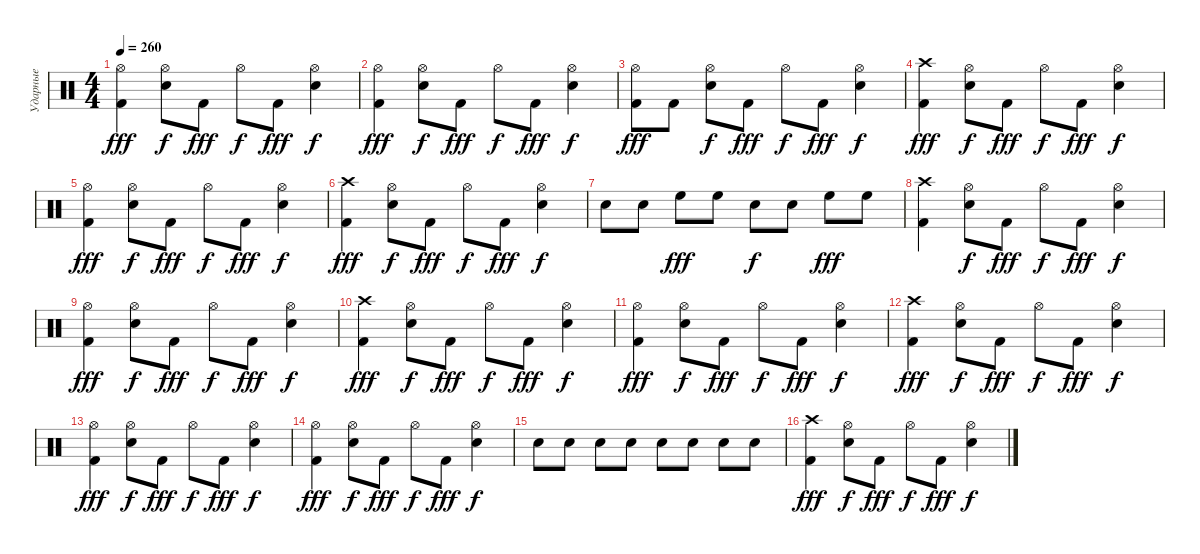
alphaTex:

\track ("Ударные" "Ударные") {instrument percussion}
\staff {score}
\articulation defaults
\ts (4 4)
\tempo 260
\clef neutral
\ks c
("Kick (hit) 2" "Hi-Hat (open)").4{dy fff} ("Snare (hit) 2" "Hi-Hat (open)").8{dy f} "Kick (hit) 2".8{dy fff} "Hi-Hat (open)".8{dy f} "Kick (hit) 2".8{dy fff} ("Snare (hit) 2" "Hi-Hat (open)").4{dy f} |
("Kick (hit) 2" "Hi-Hat (open)").4{dy fff} ("Snare (hit) 2" "Hi-Hat (open)").8{dy f} "Kick (hit) 2".8{dy fff} "Hi-Hat (open)".8{dy f} "Kick (hit) 2".8{dy fff} ("Snare (hit) 2" "Hi-Hat (open)").4{dy f} |
("Kick (hit) 2" "Hi-Hat (open)").8{dy fff} "Kick (hit) 2".8 ("Snare (hit) 2" "Hi-Hat (open)").8{dy f} "Kick (hit) 2".8{dy fff} "Hi-Hat (open)".8{dy f} "Kick (hit) 2".8{dy fff} ("Snare (hit) 2" "Hi-Hat (open)").4{dy f} |
("Kick (hit) 2" "Crash high (hit)").4{dy fff} ("Snare (hit) 2" "Hi-Hat (open)").8{dy f} "Kick (hit) 2".8{dy fff} "Hi-Hat (open)".8{dy f} "Kick (hit) 2".8{dy fff} ("Snare (hit) 2" "Hi-Hat (open)").4{dy f} |
("Kick (hit) 2" "Hi-Hat (open)").4{dy fff} ("Snare (hit) 2" "Hi-Hat (open)").8{dy f} "Kick (hit) 2".8{dy fff} "Hi-Hat (open)".8{dy f} "Kick (hit) 2".8{dy fff} ("Snare (hit) 2" "Hi-Hat (open)").4{dy f} |
("Kick (hit) 2" "Crash high (hit)").4{dy fff} ("Snare (hit) 2" "Hi-Hat (open)").8{dy f} "Kick (hit) 2".8{dy fff} "Hi-Hat (open)".8{dy f} "Kick (hit) 2".8{dy fff} ("Snare (hit) 2" "Hi-Hat (open)").4{dy f} |
"Snare (hit) 2".8 "Snare (hit) 2".8 "High Floor Tom (hit)".8{dy fff} "High Floor Tom (hit)".8 "Snare (hit) 2".8{dy f} "Snare (hit) 2".8 "High Floor Tom (hit)".8{dy fff} "High Floor Tom (hit)".8 |
("Kick (hit) 2" "Crash high (hit)").4 ("Snare (hit) 2" "Hi-Hat (open)").8{dy f} "Kick (hit) 2".8{dy fff} "Hi-Hat (open)".8{dy f} "Kick (hit) 2".8{dy fff} ("Snare (hit) 2" "Hi-Hat (open)").4{dy f} |
("Kick (hit) 2" "Hi-Hat (open)").4{dy fff} ("Snare (hit) 2" "Hi-Hat (open)").8{dy f} "Kick (hit) 2".8{dy fff} "Hi-Hat (open)".8{dy f} "Kick (hit) 2".8{dy fff} ("Snare (hit) 2" "Hi-Hat (open)").4{dy f} |
("Kick (hit) 2" "Crash high (hit)").4{dy fff} ("Snare (hit) 2" "Hi-Hat (open)").8{dy f} "Kick (hit) 2".8{dy fff} "Hi-Hat (open)".8{dy f} "Kick (hit) 2".8{dy fff} ("Snare (hit) 2" "Hi-Hat (open)").4{dy f} |
("Kick (hit) 2" "Hi-Hat (open)").4{dy fff} ("Snare (hit) 2" "Hi-Hat (open)").8{dy f} "Kick (hit) 2".8{dy fff} "Hi-Hat (open)".8{dy f} "Kick (hit) 2".8{dy fff} ("Snare (hit) 2" "Hi-Hat (open)").4{dy f} |
("Kick (hit) 2" "Crash high (hit)").4{dy fff} ("Snare (hit) 2" "Hi-Hat (open)").8{dy f} "Kick (hit) 2".8{dy fff} "Hi-Hat (open)".8{dy f} "Kick (hit) 2".8{dy fff} ("Snare (hit) 2" "Hi-Hat (open)").4{dy f} |
("Kick (hit) 2" "Hi-Hat (open)").4{dy fff} ("Snare (hit) 2" "Hi-Hat (open)").8{dy f} "Kick (hit) 2".8{dy fff} "Hi-Hat (open)".8{dy f} "Kick (hit) 2".8{dy fff} ("Snare (hit) 2" "Hi-Hat (open)").4{dy f} |
("Kick (hit) 2" "Hi-Hat (open)").4{dy fff} ("Snare (hit) 2" "Hi-Hat (open)").8{dy f} "Kick (hit) 2".8{dy fff} "Hi-Hat (open)".8{dy f} "Kick (hit) 2".8{dy fff} ("Snare (hit) 2" "Hi-Hat (open)").4{dy f} |
"Snare (hit) 2".8 "Snare (hit) 2".8 "Snare (hit) 2".8 "Snare (hit) 2".8 "Snare (hit) 2".8 "Snare (hit) 2".8 "Snare (hit) 2".8 "Snare (hit) 2".8 |
("Kick (hit) 2" "Crash high (hit)").4{dy fff} ("Snare (hit) 2" "Hi-Hat (open)").8{dy f} "Kick (hit) 2".8{dy fff} "Hi-Hat (open)".8{dy f} "Kick (hit) 2".8{dy fff} ("Snare (hit) 2" "Hi-Hat (open)").4{dy f}
